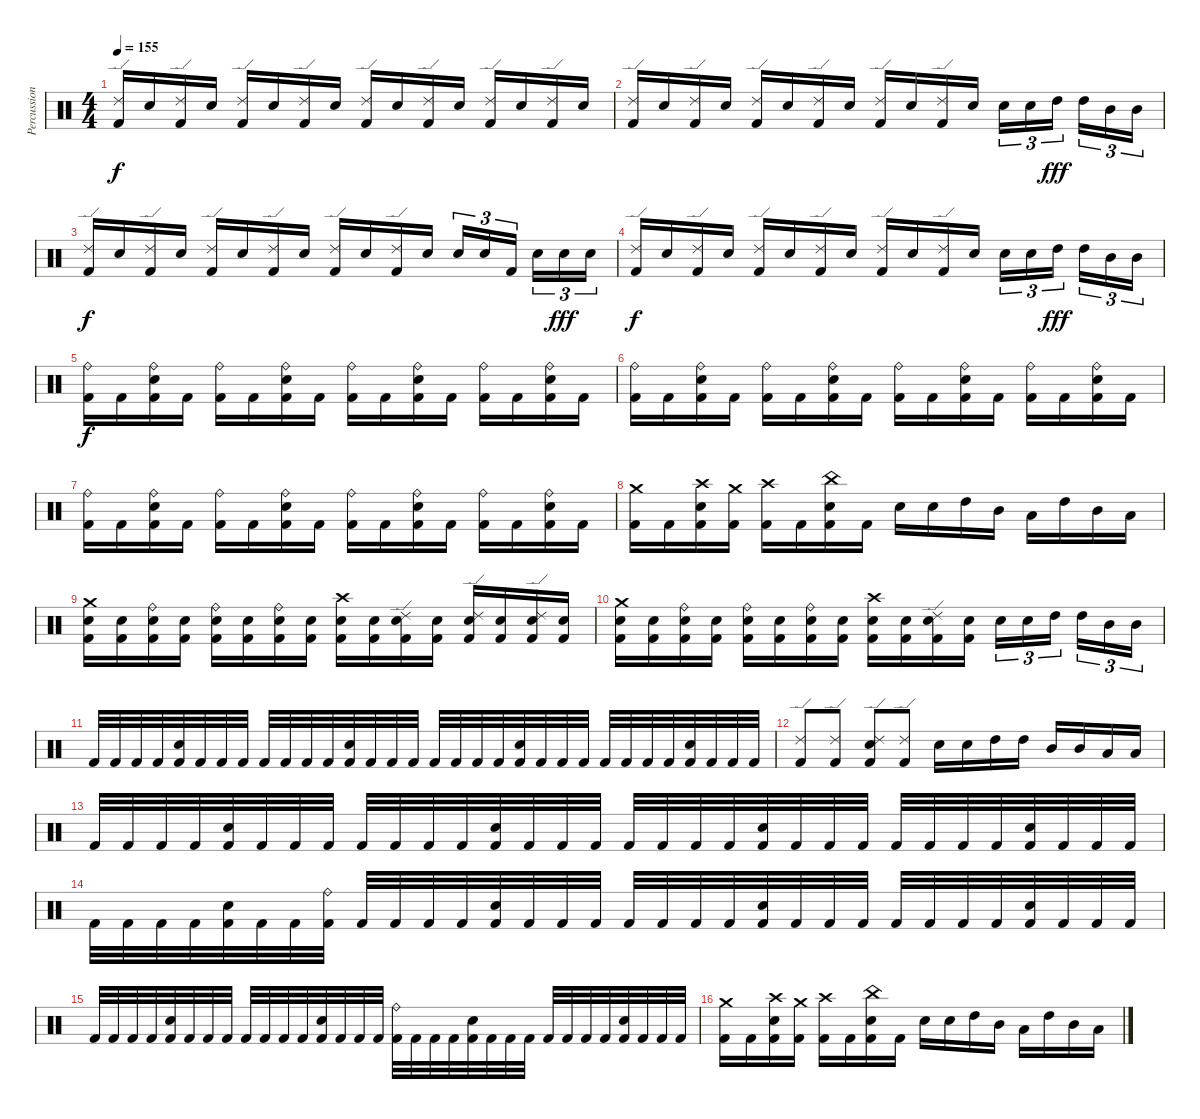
\track ("Percussions" "Percussion") {instrument percussion}
\staff {score}
\articulation defaults
\ts (4 4)
\tempo 155
\clef neutral
\ks c
("Ride (edge) 2" "Kick (hit) 2").16{dy f} "Electric Snare (hit)".16 ("Ride (edge) 2" "Kick (hit) 2").16 "Electric Snare (hit)".16 ("Ride (edge) 2" "Kick (hit) 2").16 "Electric Snare (hit)".16 ("Ride (edge) 2" "Kick (hit) 2").16 "Electric Snare (hit)".16 ("Ride (edge) 2" "Kick (hit) 2").16 "Electric Snare (hit)".16 ("Ride (edge) 2" "Kick (hit) 2").16 "Electric Snare (hit)".16 ("Ride (edge) 2" "Kick (hit) 2").16 "Electric Snare (hit)".16 ("Ride (edge) 2" "Kick (hit) 2").16 "Electric Snare (hit)".16 |
("Ride (edge) 2" "Kick (hit) 2").16 "Electric Snare (hit)".16 ("Ride (edge) 2" "Kick (hit) 2").16 "Electric Snare (hit)".16 ("Ride (edge) 2" "Kick (hit) 2").16 "Electric Snare (hit)".16 ("Ride (edge) 2" "Kick (hit) 2").16 "Electric Snare (hit)".16 ("Ride (edge) 2" "Kick (hit) 2").16 "Electric Snare (hit)".16 ("Ride (edge) 2" "Kick (hit) 2").16 "Electric Snare (hit)".16 "Electric Snare (hit)".16{tu (3 2)} "Electric Snare (hit)".16{tu (3 2)} "High Tom (hit)".16{tu (3 2) dy fff} "High Tom (hit)".16{tu (3 2)} "Mid Tom (hit)".16{tu (3 2)} "Mid Tom (hit)".16{tu (3 2)} |
("Ride (edge) 2" "Kick (hit) 2").16{dy f} "Electric Snare (hit)".16 ("Ride (edge) 2" "Kick (hit) 2").16 "Electric Snare (hit)".16 ("Ride (edge) 2" "Kick (hit) 2").16 "Electric Snare (hit)".16 ("Ride (edge) 2" "Kick (hit) 2").16 "Electric Snare (hit)".16 ("Ride (edge) 2" "Kick (hit) 2").16 "Electric Snare (hit)".16 ("Ride (edge) 2" "Kick (hit) 2").16 "Electric Snare (hit)".16 "Electric Snare (hit)".16{tu (3 2)} "Electric Snare (hit)".16{tu (3 2)} "Kick (hit) 2".16{tu (3 2)} "Electric Snare (hit)".16{tu (3 2)} "Electric Snare (hit)".16{tu (3 2) dy fff} "Electric Snare (hit)".16{tu (3 2)} |
("Ride (edge) 2" "Kick (hit) 2").16{dy f} "Electric Snare (hit)".16 ("Ride (edge) 2" "Kick (hit) 2").16 "Electric Snare (hit)".16 ("Ride (edge) 2" "Kick (hit) 2").16 "Electric Snare (hit)".16 ("Ride (edge) 2" "Kick (hit) 2").16 "Electric Snare (hit)".16 ("Ride (edge) 2" "Kick (hit) 2").16 "Electric Snare (hit)".16 ("Ride (edge) 2" "Kick (hit) 2").16 "Electric Snare (hit)".16 "Electric Snare (hit)".16{tu (3 2)} "Electric Snare (hit)".16{tu (3 2)} "High Tom (hit)".16{tu (3 2) dy fff} "High Tom (hit)".16{tu (3 2)} "Mid Tom (hit)".16{tu (3 2)} "Mid Tom (hit)".16{tu (3 2)} |
("Ride (bell)" "Kick (hit) 2").16{dy f} "Kick (hit) 2".16 ("Ride (bell)" "Electric Snare (hit)" "Kick (hit) 2").16 "Kick (hit) 2".16 ("Ride (bell)" "Kick (hit) 2").16 "Kick (hit) 2".16 ("Ride (bell)" "Electric Snare (hit)" "Kick (hit) 2").16 "Kick (hit) 2".16 ("Ride (bell)" "Kick (hit) 2").16 "Kick (hit) 2".16 ("Ride (bell)" "Electric Snare (hit)" "Kick (hit) 2").16 "Kick (hit) 2".16 ("Ride (bell)" "Kick (hit) 2").16 "Kick (hit) 2".16 ("Ride (bell)" "Electric Snare (hit)" "Kick (hit) 2").16 "Kick (hit) 2".16 |
("Ride (bell)" "Kick (hit) 2").16 "Kick (hit) 2".16 ("Ride (bell)" "Electric Snare (hit)" "Kick (hit) 2").16 "Kick (hit) 2".16 ("Ride (bell)" "Kick (hit) 2").16 "Kick (hit) 2".16 ("Ride (bell)" "Electric Snare (hit)" "Kick (hit) 2").16 "Kick (hit) 2".16 ("Ride (bell)" "Kick (hit) 2").16 "Kick (hit) 2".16 ("Ride (bell)" "Electric Snare (hit)" "Kick (hit) 2").16 "Kick (hit) 2".16 ("Ride (bell)" "Kick (hit) 2").16 "Kick (hit) 2".16 ("Ride (bell)" "Electric Snare (hit)" "Kick (hit) 2").16 "Kick (hit) 2".16 |
("Ride (bell)" "Kick (hit) 2").16 "Kick (hit) 2".16 ("Ride (bell)" "Electric Snare (hit)" "Kick (hit) 2").16 "Kick (hit) 2".16 ("Ride (bell)" "Kick (hit) 2").16 "Kick (hit) 2".16 ("Ride (bell)" "Electric Snare (hit)" "Kick (hit) 2").16 "Kick (hit) 2".16 ("Ride (bell)" "Kick (hit) 2").16 "Kick (hit) 2".16 ("Ride (bell)" "Electric Snare (hit)" "Kick (hit) 2").16 "Kick (hit) 2".16 ("Ride (bell)" "Kick (hit) 2").16 "Kick (hit) 2".16 ("Ride (bell)" "Electric Snare (hit)" "Kick (hit) 2").16 "Kick (hit) 2".16 |
("Crash medium (hit)" "Kick (hit) 2").16 "Kick (hit) 2".16 ("Crash high (hit)" "Electric Snare (hit)" "Kick (hit) 2").16 ("Crash medium (hit)" "Kick (hit) 2").16 ("Crash high (hit)" "Kick (hit) 2").16 "Kick (hit) 2".16 ("China (hit)" "Electric Snare (hit)" "Kick (hit) 2").16 "Kick (hit) 2".16 "Electric Snare (hit)".16 "Electric Snare (hit)".16 "High Tom (hit)".16 "Mid Tom (hit)".16 "Low Tom (hit)".16 "High Tom (hit)".16 "Mid Tom (hit)".16 "Low Tom (hit)".16 |
("Crash medium (hit)" "Electric Snare (hit)" "Kick (hit) 2").16 ("Electric Snare (hit)" "Kick (hit) 2").16 ("Ride (bell)" "Electric Snare (hit)" "Kick (hit) 2").16 ("Electric Snare (hit)" "Kick (hit) 2").16 ("Ride (bell)" "Electric Snare (hit)" "Kick (hit) 2").16 ("Electric Snare (hit)" "Kick (hit) 2").16 ("Ride (bell)" "Electric Snare (hit)" "Kick (hit) 2").16 ("Electric Snare (hit)" "Kick (hit) 2").16 ("Crash high (hit)" "Electric Snare (hit)" "Kick (hit) 2").16 ("Electric Snare (hit)" "Kick (hit) 2").16 ("Ride (edge) 2" "Electric Snare (hit)" "Kick (hit) 2").16 ("Electric Snare (hit)" "Kick (hit) 2").16 ("Ride (edge) 2" "Electric Snare (hit)" "Kick (hit) 2").16 ("Electric Snare (hit)" "Kick (hit) 2").16 ("Ride (edge) 2" "Electric Snare (hit)" "Kick (hit) 2").16 ("Electric Snare (hit)" "Kick (hit) 2").16 |
("Crash medium (hit)" "Electric Snare (hit)" "Kick (hit) 2").16 ("Electric Snare (hit)" "Kick (hit) 2").16 ("Ride (bell)" "Electric Snare (hit)" "Kick (hit) 2").16 ("Electric Snare (hit)" "Kick (hit) 2").16 ("Ride (bell)" "Electric Snare (hit)" "Kick (hit) 2").16 ("Electric Snare (hit)" "Kick (hit) 2").16 ("Ride (bell)" "Electric Snare (hit)" "Kick (hit) 2").16 ("Electric Snare (hit)" "Kick (hit) 2").16 ("Crash high (hit)" "Electric Snare (hit)" "Kick (hit) 2").16 ("Electric Snare (hit)" "Kick (hit) 2").16 ("Ride (edge) 2" "Electric Snare (hit)" "Kick (hit) 2").16 ("Electric Snare (hit)" "Kick (hit) 2").16 "Electric Snare (hit)".16{tu (3 2)} "Electric Snare (hit)".16{tu (3 2)} "High Tom (hit)".16{tu (3 2)} "High Tom (hit)".16{tu (3 2)} "Mid Tom (hit)".16{tu (3 2)} "Mid Tom (hit)".16{tu (3 2)} |
"Kick (hit) 2".32 "Kick (hit) 2".32 "Kick (hit) 2".32 "Kick (hit) 2".32 ("Electric Snare (hit)" "Kick (hit) 2").32 "Kick (hit) 2".32 "Kick (hit) 2".32 "Kick (hit) 2".32 "Kick (hit) 2".32 "Kick (hit) 2".32 "Kick (hit) 2".32 "Kick (hit) 2".32 ("Electric Snare (hit)" "Kick (hit) 2").32 "Kick (hit) 2".32 "Kick (hit) 2".32 "Kick (hit) 2".32 "Kick (hit) 2".32 "Kick (hit) 2".32 "Kick (hit) 2".32 "Kick (hit) 2".32 ("Electric Snare (hit)" "Kick (hit) 2").32 "Kick (hit) 2".32 "Kick (hit) 2".32 "Kick (hit) 2".32 "Kick (hit) 2".32 "Kick (hit) 2".32 "Kick (hit) 2".32 "Kick (hit) 2".32 ("Electric Snare (hit)" "Kick (hit) 2").32 "Kick (hit) 2".32 "Kick (hit) 2".32 "Kick (hit) 2".32 |
("Ride (edge) 2" "Kick (hit) 2").8 ("Ride (edge) 2" "Kick (hit) 2").8 ("Ride (edge) 2" "Electric Snare (hit)" "Kick (hit) 2").8 ("Ride (edge) 2" "Kick (hit) 2").8 "Electric Snare (hit)".16 "Electric Snare (hit)".16 "High Tom (hit)".16 "High Tom (hit)".16 "Mid Tom (hit)".16 "Mid Tom (hit)".16 "Low Tom (hit)".16 "Low Tom (hit)".16 |
"Kick (hit) 2".32 "Kick (hit) 2".32 "Kick (hit) 2".32 "Kick (hit) 2".32 ("Electric Snare (hit)" "Kick (hit) 2").32 "Kick (hit) 2".32 "Kick (hit) 2".32 "Kick (hit) 2".32 "Kick (hit) 2".32 "Kick (hit) 2".32 "Kick (hit) 2".32 "Kick (hit) 2".32 ("Electric Snare (hit)" "Kick (hit) 2").32 "Kick (hit) 2".32 "Kick (hit) 2".32 "Kick (hit) 2".32 "Kick (hit) 2".32 "Kick (hit) 2".32 "Kick (hit) 2".32 "Kick (hit) 2".32 ("Electric Snare (hit)" "Kick (hit) 2").32 "Kick (hit) 2".32 "Kick (hit) 2".32 "Kick (hit) 2".32 "Kick (hit) 2".32 "Kick (hit) 2".32 "Kick (hit) 2".32 "Kick (hit) 2".32 ("Electric Snare (hit)" "Kick (hit) 2").32 "Kick (hit) 2".32 "Kick (hit) 2".32 "Kick (hit) 2".32 |
"Kick (hit) 2".32 "Kick (hit) 2".32 "Kick (hit) 2".32 "Kick (hit) 2".32 ("Electric Snare (hit)" "Kick (hit) 2").32 "Kick (hit) 2".32 "Kick (hit) 2".32 ("Ride (bell)" "Kick (hit) 2").32 "Kick (hit) 2".32 "Kick (hit) 2".32 "Kick (hit) 2".32 "Kick (hit) 2".32 ("Electric Snare (hit)" "Kick (hit) 2").32 "Kick (hit) 2".32 "Kick (hit) 2".32 "Kick (hit) 2".32 "Kick (hit) 2".32 "Kick (hit) 2".32 "Kick (hit) 2".32 "Kick (hit) 2".32 ("Electric Snare (hit)" "Kick (hit) 2").32 "Kick (hit) 2".32 "Kick (hit) 2".32 "Kick (hit) 2".32 "Kick (hit) 2".32 "Kick (hit) 2".32 "Kick (hit) 2".32 "Kick (hit) 2".32 ("Electric Snare (hit)" "Kick (hit) 2").32 "Kick (hit) 2".32 "Kick (hit) 2".32 "Kick (hit) 2".32 |
"Kick (hit) 2".32 "Kick (hit) 2".32 "Kick (hit) 2".32 "Kick (hit) 2".32 ("Electric Snare (hit)" "Kick (hit) 2").32 "Kick (hit) 2".32 "Kick (hit) 2".32 "Kick (hit) 2".32 "Kick (hit) 2".32 "Kick (hit) 2".32 "Kick (hit) 2".32 "Kick (hit) 2".32 ("Electric Snare (hit)" "Kick (hit) 2").32 "Kick (hit) 2".32 "Kick (hit) 2".32 "Kick (hit) 2".32 ("Ride (bell)" "Kick (hit) 2").32 "Kick (hit) 2".32 "Kick (hit) 2".32 "Kick (hit) 2".32 ("Electric Snare (hit)" "Kick (hit) 2").32 "Kick (hit) 2".32 "Kick (hit) 2".32 "Kick (hit) 2".32 "Kick (hit) 2".32 "Kick (hit) 2".32 "Kick (hit) 2".32 "Kick (hit) 2".32 ("Electric Snare (hit)" "Kick (hit) 2").32 "Kick (hit) 2".32 "Kick (hit) 2".32 "Kick (hit) 2".32 |
("Crash medium (hit)" "Kick (hit) 2").16 "Kick (hit) 2".16 ("Crash high (hit)" "Electric Snare (hit)" "Kick (hit) 2").16 ("Crash medium (hit)" "Kick (hit) 2").16 ("Crash high (hit)" "Kick (hit) 2").16 "Kick (hit) 2".16 ("China (hit)" "Electric Snare (hit)" "Kick (hit) 2").16 "Kick (hit) 2".16 "Electric Snare (hit)".16 "Electric Snare (hit)".16 "High Tom (hit)".16 "Mid Tom (hit)".16 "Low Tom (hit)".16 "High Tom (hit)".16 "Mid Tom (hit)".16 "Low Tom (hit)".16
